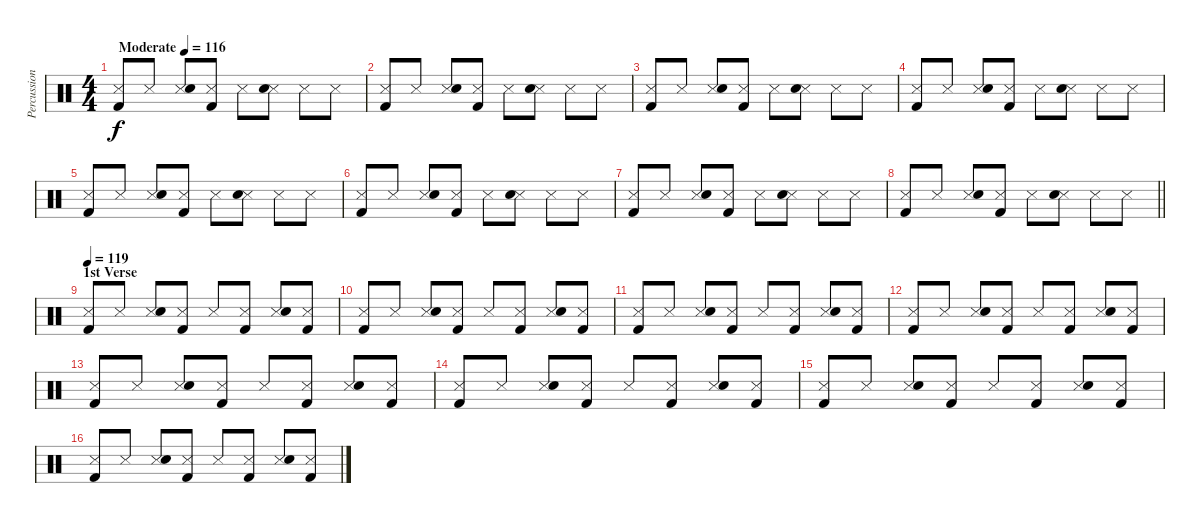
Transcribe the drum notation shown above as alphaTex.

\track ("Percussion" "Percussion") {instrument percussion}
\staff {score}
\articulation defaults
\ts (4 4)
\tempo (116 "Moderate")
\clef neutral
\ks c
("Snare (side stick) 3" "Kick (hit) 2").8{dy f} "Snare (side stick) 3".8 ("Snare (side stick) 3" "Snare (hit) 2").8 ("Snare (side stick) 3" "Kick (hit) 2").8 "Snare (side stick) 3".8 ("Snare (side stick) 3" "Snare (hit) 2").8 "Snare (side stick) 3".8 "Snare (side stick) 3".8 |
("Snare (side stick) 3" "Kick (hit) 2").8 "Snare (side stick) 3".8 ("Snare (side stick) 3" "Snare (hit) 2").8 ("Snare (side stick) 3" "Kick (hit) 2").8 "Snare (side stick) 3".8 ("Snare (side stick) 3" "Snare (hit) 2").8 "Snare (side stick) 3".8 "Snare (side stick) 3".8 |
("Snare (side stick) 3" "Kick (hit) 2").8 "Snare (side stick) 3".8 ("Snare (side stick) 3" "Snare (hit) 2").8 ("Snare (side stick) 3" "Kick (hit) 2").8 "Snare (side stick) 3".8 ("Snare (side stick) 3" "Snare (hit) 2").8 "Snare (side stick) 3".8 "Snare (side stick) 3".8 |
("Snare (side stick) 3" "Kick (hit) 2").8 "Snare (side stick) 3".8 ("Snare (side stick) 3" "Snare (hit) 2").8 ("Snare (side stick) 3" "Kick (hit) 2").8 "Snare (side stick) 3".8 ("Snare (side stick) 3" "Snare (hit) 2").8 "Snare (side stick) 3".8 "Snare (side stick) 3".8 |
("Snare (side stick) 3" "Kick (hit) 2").8 "Snare (side stick) 3".8 ("Snare (side stick) 3" "Snare (hit) 2").8 ("Snare (side stick) 3" "Kick (hit) 2").8 "Snare (side stick) 3".8 ("Snare (side stick) 3" "Snare (hit) 2").8 "Snare (side stick) 3".8 "Snare (side stick) 3".8 |
("Snare (side stick) 3" "Kick (hit) 2").8 "Snare (side stick) 3".8 ("Snare (side stick) 3" "Snare (hit) 2").8 ("Snare (side stick) 3" "Kick (hit) 2").8 "Snare (side stick) 3".8 ("Snare (side stick) 3" "Snare (hit) 2").8 "Snare (side stick) 3".8 "Snare (side stick) 3".8 |
("Snare (side stick) 3" "Kick (hit) 2").8 "Snare (side stick) 3".8 ("Snare (side stick) 3" "Snare (hit) 2").8 ("Snare (side stick) 3" "Kick (hit) 2").8 "Snare (side stick) 3".8 ("Snare (side stick) 3" "Snare (hit) 2").8 "Snare (side stick) 3".8 "Snare (side stick) 3".8 |
\barLineRight lightlight
("Snare (side stick) 3" "Kick (hit) 2").8 "Snare (side stick) 3".8 ("Snare (side stick) 3" "Snare (hit) 2").8 ("Snare (side stick) 3" "Kick (hit) 2").8 "Snare (side stick) 3".8 ("Snare (side stick) 3" "Snare (hit) 2").8 "Snare (side stick) 3".8 "Snare (side stick) 3".8 |
\section ("" "1st Verse")
\tempo 119
("Snare (side stick) 3" "Kick (hit) 2").8 "Snare (side stick) 3".8 ("Snare (side stick) 3" "Snare (hit) 2").8 ("Snare (side stick) 3" "Kick (hit) 2").8 "Snare (side stick) 3".8 ("Snare (side stick) 3" "Kick (hit) 2").8 ("Snare (side stick) 3" "Snare (hit) 2").8 ("Snare (side stick) 3" "Kick (hit) 2").8 |
("Snare (side stick) 3" "Kick (hit) 2").8 "Snare (side stick) 3".8 ("Snare (side stick) 3" "Snare (hit) 2").8 ("Snare (side stick) 3" "Kick (hit) 2").8 "Snare (side stick) 3".8 ("Snare (side stick) 3" "Kick (hit) 2").8 ("Snare (side stick) 3" "Snare (hit) 2").8 ("Snare (side stick) 3" "Kick (hit) 2").8 |
("Snare (side stick) 3" "Kick (hit) 2").8 "Snare (side stick) 3".8 ("Snare (side stick) 3" "Snare (hit) 2").8 ("Snare (side stick) 3" "Kick (hit) 2").8 "Snare (side stick) 3".8 ("Snare (side stick) 3" "Kick (hit) 2").8 ("Snare (side stick) 3" "Snare (hit) 2").8 ("Snare (side stick) 3" "Kick (hit) 2").8 |
("Snare (side stick) 3" "Kick (hit) 2").8 "Snare (side stick) 3".8 ("Snare (side stick) 3" "Snare (hit) 2").8 ("Snare (side stick) 3" "Kick (hit) 2").8 "Snare (side stick) 3".8 ("Snare (side stick) 3" "Kick (hit) 2").8 ("Snare (side stick) 3" "Snare (hit) 2").8 ("Snare (side stick) 3" "Kick (hit) 2").8 |
("Snare (side stick) 3" "Kick (hit) 2").8 "Snare (side stick) 3".8 ("Snare (side stick) 3" "Snare (hit) 2").8 ("Snare (side stick) 3" "Kick (hit) 2").8 "Snare (side stick) 3".8 ("Snare (side stick) 3" "Kick (hit) 2").8 ("Snare (side stick) 3" "Snare (hit) 2").8 ("Snare (side stick) 3" "Kick (hit) 2").8 |
("Snare (side stick) 3" "Kick (hit) 2").8 "Snare (side stick) 3".8 ("Snare (side stick) 3" "Snare (hit) 2").8 ("Snare (side stick) 3" "Kick (hit) 2").8 "Snare (side stick) 3".8 ("Snare (side stick) 3" "Kick (hit) 2").8 ("Snare (side stick) 3" "Snare (hit) 2").8 ("Snare (side stick) 3" "Kick (hit) 2").8 |
("Snare (side stick) 3" "Kick (hit) 2").8 "Snare (side stick) 3".8 ("Snare (side stick) 3" "Snare (hit) 2").8 ("Snare (side stick) 3" "Kick (hit) 2").8 "Snare (side stick) 3".8 ("Snare (side stick) 3" "Kick (hit) 2").8 ("Snare (side stick) 3" "Snare (hit) 2").8 ("Snare (side stick) 3" "Kick (hit) 2").8 |
("Snare (side stick) 3" "Kick (hit) 2").8 "Snare (side stick) 3".8 ("Snare (side stick) 3" "Snare (hit) 2").8 ("Snare (side stick) 3" "Kick (hit) 2").8 "Snare (side stick) 3".8 ("Snare (side stick) 3" "Kick (hit) 2").8 ("Snare (side stick) 3" "Snare (hit) 2").8 ("Snare (side stick) 3" "Kick (hit) 2").8
